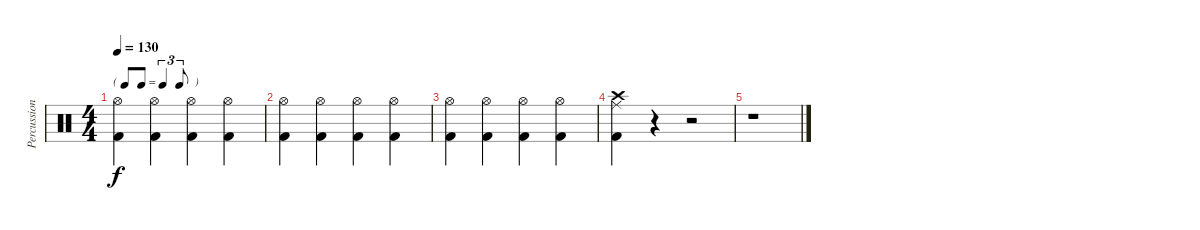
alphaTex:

\track ("Percussions" "Percussion") {instrument percussion}
\staff {score}
\articulation defaults
\ts (4 4)
\tf triplet8th
\tempo 130
\clef neutral
\ks c
("Hi-Hat (open)" "Kick (hit) 2").4{dy f} ("Hi-Hat (open)" "Kick (hit) 2").4 ("Hi-Hat (open)" "Kick (hit) 2").4 ("Hi-Hat (open)" "Kick (hit) 2").4 |
("Hi-Hat (open)" "Kick (hit) 2").4 ("Hi-Hat (open)" "Kick (hit) 2").4 ("Hi-Hat (open)" "Kick (hit) 2").4 ("Hi-Hat (open)" "Kick (hit) 2").4 |
("Hi-Hat (open)" "Kick (hit) 2").4 ("Hi-Hat (open)" "Kick (hit) 2").4 ("Hi-Hat (open)" "Kick (hit) 2").4 ("Hi-Hat (open)" "Kick (hit) 2").4 |
("Crash high (hit)" "Ride (middle)" "Kick (hit) 2").4 r.4 r.2 |
r.1
